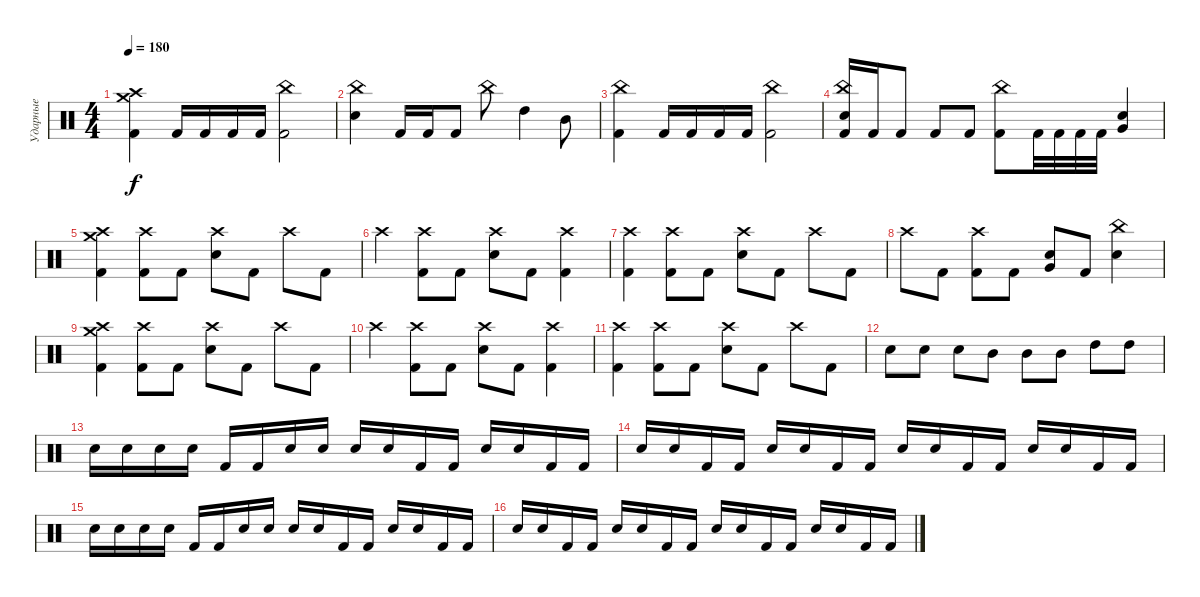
\track ("Ударные" "Ударные") {instrument percussion}
\staff {score}
\articulation defaults
\ts (4 4)
\tempo 180
\clef neutral
\ks c
("Crash high (hit)" "Crash medium (hit)" "Kick (hit) 2").4{dy f} "Kick (hit) 2".16 "Kick (hit) 2".16 "Kick (hit) 2".16 "Kick (hit) 2".16 ("China (hit)" "Kick (hit) 2").2 |
("China (hit)" "Electric Snare (hit)").4 "Kick (hit) 2".16 "Kick (hit) 2".16 "Kick (hit) 2".8 "China (hit)".8 "High Tom (hit)".4 "Mid Tom (hit)".8 |
("China (hit)" "Kick (hit) 2").4 "Kick (hit) 2".16 "Kick (hit) 2".16 "Kick (hit) 2".16 "Kick (hit) 2".16 ("China (hit)" "Kick (hit) 2").2 |
("China (hit)" "Electric Snare (hit)" "Kick (hit) 2").16 "Kick (hit) 2".16 "Kick (hit) 2".8 "Kick (hit) 2".8 "Kick (hit) 2".8 ("China (hit)" "Kick (hit) 2").8 "Kick (hit) 2".32 "Kick (hit) 2".32 "Kick (hit) 2".32 "Kick (hit) 2".32 ("Very Low Tom (hit)" "Electric Snare (hit)").4 |
("Crash high (hit)" "Crash medium (hit)" "Kick (hit) 2").4 ("Crash high (hit)" "Kick (hit) 2").8 "Kick (hit) 2".8 ("Crash high (hit)" "Electric Snare (hit)").8 "Kick (hit) 2".8 "Crash high (hit)".8 "Kick (hit) 2".8 |
"Crash high (hit)".4 ("Crash high (hit)" "Kick (hit) 2").8 "Kick (hit) 2".8 ("Crash high (hit)" "Electric Snare (hit)").8 "Kick (hit) 2".8 ("Crash high (hit)" "Kick (hit) 2").4 |
("Crash high (hit)" "Kick (hit) 2").4 ("Crash high (hit)" "Kick (hit) 2").8 "Kick (hit) 2".8 ("Crash high (hit)" "Electric Snare (hit)").8 "Kick (hit) 2".8 "Crash high (hit)".8 "Kick (hit) 2".8 |
"Crash high (hit)".8 "Kick (hit) 2".8 ("Crash high (hit)" "Kick (hit) 2").8 "Kick (hit) 2".8 ("Very Low Tom (hit)" "Electric Snare (hit)").8 "Kick (hit) 2".8 ("China (hit)" "Electric Snare (hit)").4 |
("Crash high (hit)" "Crash medium (hit)" "Kick (hit) 2").4 ("Crash high (hit)" "Kick (hit) 2").8 "Kick (hit) 2".8 ("Crash high (hit)" "Electric Snare (hit)").8 "Kick (hit) 2".8 "Crash high (hit)".8 "Kick (hit) 2".8 |
"Crash high (hit)".4 ("Crash high (hit)" "Kick (hit) 2").8 "Kick (hit) 2".8 ("Crash high (hit)" "Electric Snare (hit)").8 "Kick (hit) 2".8 ("Crash high (hit)" "Kick (hit) 2").4 |
("Crash high (hit)" "Kick (hit) 2").4 ("Crash high (hit)" "Kick (hit) 2").8 "Kick (hit) 2".8 ("Crash high (hit)" "Electric Snare (hit)").8 "Kick (hit) 2".8 "Crash high (hit)".8 "Kick (hit) 2".8 |
"Electric Snare (hit)".8 "Electric Snare (hit)".8 "Electric Snare (hit)".8 "Mid Tom (hit)".8 "Mid Tom (hit)".8 "Mid Tom (hit)".8 "High Tom (hit)".8 "High Tom (hit)".8 |
"Electric Snare (hit)".16 "Electric Snare (hit)".16 "Electric Snare (hit)".16 "Electric Snare (hit)".16 "Kick (hit) 2".16 "Kick (hit) 2".16 "Electric Snare (hit)".16 "Electric Snare (hit)".16 "Electric Snare (hit)".16 "Electric Snare (hit)".16 "Kick (hit) 2".16 "Kick (hit) 2".16 "Electric Snare (hit)".16 "Electric Snare (hit)".16 "Kick (hit) 2".16 "Kick (hit) 2".16 |
"Electric Snare (hit)".16 "Electric Snare (hit)".16 "Kick (hit) 2".16 "Kick (hit) 2".16 "Electric Snare (hit)".16 "Electric Snare (hit)".16 "Kick (hit) 2".16 "Kick (hit) 2".16 "Electric Snare (hit)".16 "Electric Snare (hit)".16 "Kick (hit) 2".16 "Kick (hit) 2".16 "Electric Snare (hit)".16 "Electric Snare (hit)".16 "Kick (hit) 2".16 "Kick (hit) 2".16 |
"Electric Snare (hit)".16 "Electric Snare (hit)".16 "Electric Snare (hit)".16 "Electric Snare (hit)".16 "Kick (hit) 2".16 "Kick (hit) 2".16 "Electric Snare (hit)".16 "Electric Snare (hit)".16 "Electric Snare (hit)".16 "Electric Snare (hit)".16 "Kick (hit) 2".16 "Kick (hit) 2".16 "Electric Snare (hit)".16 "Electric Snare (hit)".16 "Kick (hit) 2".16 "Kick (hit) 2".16 |
"Electric Snare (hit)".16 "Electric Snare (hit)".16 "Kick (hit) 2".16 "Kick (hit) 2".16 "Electric Snare (hit)".16 "Electric Snare (hit)".16 "Kick (hit) 2".16 "Kick (hit) 2".16 "Electric Snare (hit)".16 "Electric Snare (hit)".16 "Kick (hit) 2".16 "Kick (hit) 2".16 "Electric Snare (hit)".16 "Electric Snare (hit)".16 "Kick (hit) 2".16 "Kick (hit) 2".16
